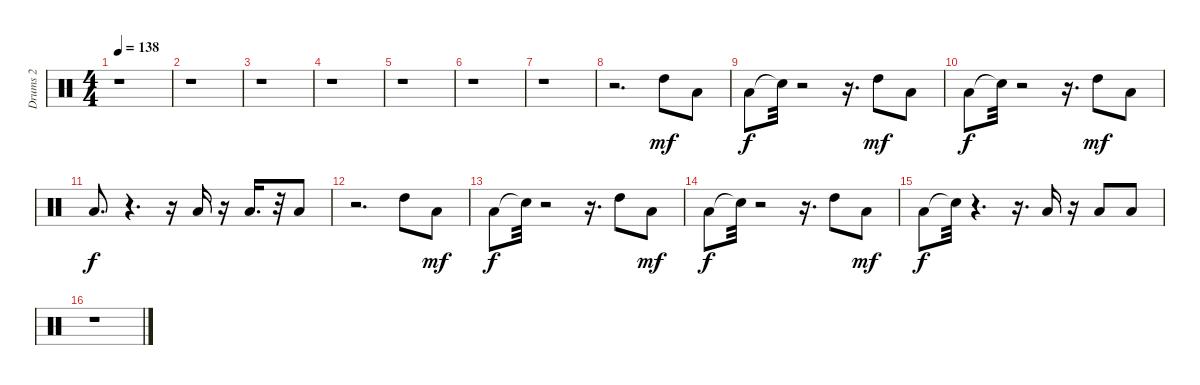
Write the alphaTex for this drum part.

\track ("Drums 2" "Drums 2") {instrument percussion}
\staff {score}
\articulation defaults
\ts (4 4)
\tempo 138
\clef neutral
\ks c
r.1{dy f} |
r.1 |
r.1 |
r.1 |
r.1 |
r.1 |
r.1 |
r.2{d} "High Tom (hit)".8{dy mf} "Low Tom (hit)".8 |
"Low Floor Tom (hit)".8{dy f} "Snare (hit)"{t}.32 r.2 r.16{d} "High Tom (hit)".8{dy mf} "Low Tom (hit)".8 |
"Low Floor Tom (hit)".8{dy f} "Snare (hit)"{t}.32 r.2 r.16{d} "High Tom (hit)".8{dy mf} "Low Tom (hit)".8 |
"Low Floor Tom (hit)".8{d dy f} r.4{d} r.16 "Low Floor Tom (hit)".16 r.16 "Low Floor Tom (hit)".16{d} r.32 "Low Tom (hit)".8 |
r.2{d} "High Tom (hit)".8 "Low Tom (hit)".8{dy mf} |
"Low Floor Tom (hit)".8{dy f} "Snare (hit)"{t}.32 r.2 r.16{d} "High Tom (hit)".8 "Low Tom (hit)".8{dy mf} |
"Low Floor Tom (hit)".8{dy f} "Snare (hit)"{t}.32 r.2 r.16{d} "High Tom (hit)".8 "Low Tom (hit)".8{dy mf} |
"Low Floor Tom (hit)".8{dy f} "Snare (hit)"{t}.32 r.4{d} r.16{d} "Low Floor Tom (hit)".16 r.16 "Low Floor Tom (hit)".8 "Low Tom (hit)".8 |
r.1
